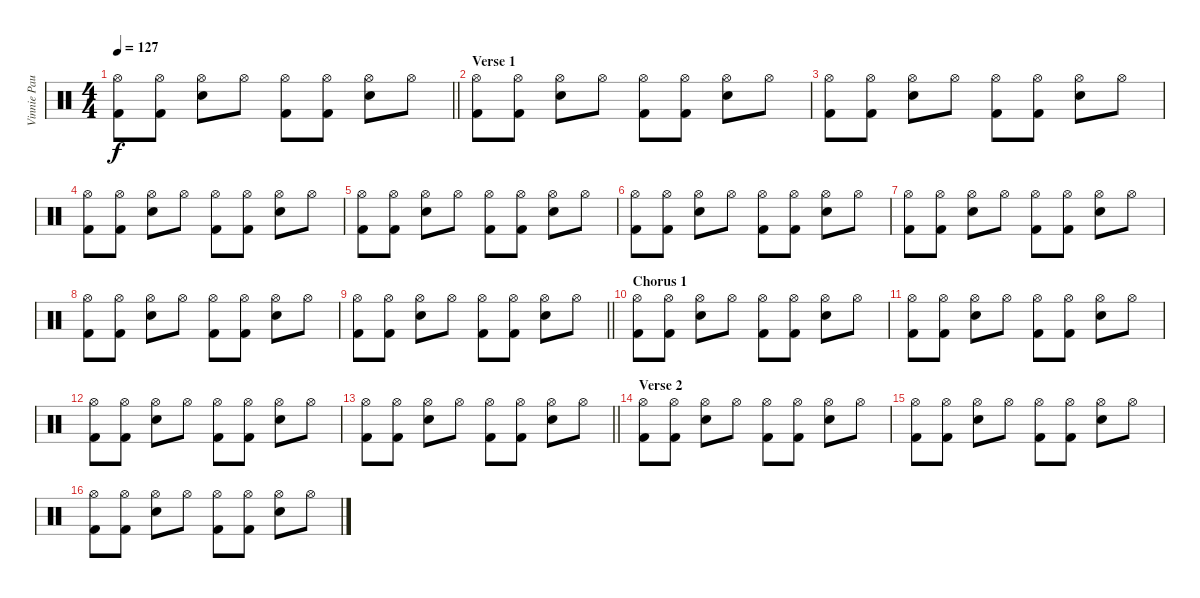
\track ("Vinnie Paul" "Vinnie Pau") {instrument percussion}
\staff {score}
\articulation defaults
\ts (4 4)
\tempo 127
\clef neutral
\barLineRight lightlight
\ks c
("Kick (hit) 2" "Hi-Hat (open)").8{dy f} ("Kick (hit) 2" "Hi-Hat (open)").8 ("Snare (hit) 2" "Hi-Hat (open)").8 "Hi-Hat (open)".8 ("Kick (hit) 2" "Hi-Hat (open)").8 ("Kick (hit) 2" "Hi-Hat (open)").8 ("Snare (hit) 2" "Hi-Hat (open)").8 "Hi-Hat (open)".8 |
\section ("" "Verse 1")
("Kick (hit) 2" "Hi-Hat (open)").8 ("Kick (hit) 2" "Hi-Hat (open)").8 ("Snare (hit) 2" "Hi-Hat (open)").8 "Hi-Hat (open)".8 ("Kick (hit) 2" "Hi-Hat (open)").8 ("Kick (hit) 2" "Hi-Hat (open)").8 ("Snare (hit) 2" "Hi-Hat (open)").8 "Hi-Hat (open)".8 |
("Kick (hit) 2" "Hi-Hat (open)").8 ("Kick (hit) 2" "Hi-Hat (open)").8 ("Snare (hit) 2" "Hi-Hat (open)").8 "Hi-Hat (open)".8 ("Kick (hit) 2" "Hi-Hat (open)").8 ("Kick (hit) 2" "Hi-Hat (open)").8 ("Snare (hit) 2" "Hi-Hat (open)").8 "Hi-Hat (open)".8 |
("Kick (hit) 2" "Hi-Hat (open)").8 ("Kick (hit) 2" "Hi-Hat (open)").8 ("Snare (hit) 2" "Hi-Hat (open)").8 "Hi-Hat (open)".8 ("Kick (hit) 2" "Hi-Hat (open)").8 ("Kick (hit) 2" "Hi-Hat (open)").8 ("Snare (hit) 2" "Hi-Hat (open)").8 "Hi-Hat (open)".8 |
("Kick (hit) 2" "Hi-Hat (open)").8 ("Kick (hit) 2" "Hi-Hat (open)").8 ("Snare (hit) 2" "Hi-Hat (open)").8 "Hi-Hat (open)".8 ("Kick (hit) 2" "Hi-Hat (open)").8 ("Kick (hit) 2" "Hi-Hat (open)").8 ("Snare (hit) 2" "Hi-Hat (open)").8 "Hi-Hat (open)".8 |
("Kick (hit) 2" "Hi-Hat (open)").8 ("Kick (hit) 2" "Hi-Hat (open)").8 ("Snare (hit) 2" "Hi-Hat (open)").8 "Hi-Hat (open)".8 ("Kick (hit) 2" "Hi-Hat (open)").8 ("Kick (hit) 2" "Hi-Hat (open)").8 ("Snare (hit) 2" "Hi-Hat (open)").8 "Hi-Hat (open)".8 |
("Kick (hit) 2" "Hi-Hat (open)").8 ("Kick (hit) 2" "Hi-Hat (open)").8 ("Snare (hit) 2" "Hi-Hat (open)").8 "Hi-Hat (open)".8 ("Kick (hit) 2" "Hi-Hat (open)").8 ("Kick (hit) 2" "Hi-Hat (open)").8 ("Snare (hit) 2" "Hi-Hat (open)").8 "Hi-Hat (open)".8 |
("Kick (hit) 2" "Hi-Hat (open)").8 ("Kick (hit) 2" "Hi-Hat (open)").8 ("Snare (hit) 2" "Hi-Hat (open)").8 "Hi-Hat (open)".8 ("Kick (hit) 2" "Hi-Hat (open)").8 ("Kick (hit) 2" "Hi-Hat (open)").8 ("Snare (hit) 2" "Hi-Hat (open)").8 "Hi-Hat (open)".8 |
\barLineRight lightlight
("Kick (hit) 2" "Hi-Hat (open)").8 ("Kick (hit) 2" "Hi-Hat (open)").8 ("Snare (hit) 2" "Hi-Hat (open)").8 "Hi-Hat (open)".8 ("Kick (hit) 2" "Hi-Hat (open)").8 ("Kick (hit) 2" "Hi-Hat (open)").8 ("Snare (hit) 2" "Hi-Hat (open)").8 "Hi-Hat (open)".8 |
\section ("" "Chorus 1")
("Kick (hit) 2" "Hi-Hat (open)").8 ("Kick (hit) 2" "Hi-Hat (open)").8 ("Snare (hit) 2" "Hi-Hat (open)").8 "Hi-Hat (open)".8 ("Kick (hit) 2" "Hi-Hat (open)").8 ("Kick (hit) 2" "Hi-Hat (open)").8 ("Snare (hit) 2" "Hi-Hat (open)").8 "Hi-Hat (open)".8 |
("Kick (hit) 2" "Hi-Hat (open)").8 ("Kick (hit) 2" "Hi-Hat (open)").8 ("Snare (hit) 2" "Hi-Hat (open)").8 "Hi-Hat (open)".8 ("Kick (hit) 2" "Hi-Hat (open)").8 ("Kick (hit) 2" "Hi-Hat (open)").8 ("Snare (hit) 2" "Hi-Hat (open)").8 "Hi-Hat (open)".8 |
("Kick (hit) 2" "Hi-Hat (open)").8 ("Kick (hit) 2" "Hi-Hat (open)").8 ("Snare (hit) 2" "Hi-Hat (open)").8 "Hi-Hat (open)".8 ("Kick (hit) 2" "Hi-Hat (open)").8 ("Kick (hit) 2" "Hi-Hat (open)").8 ("Snare (hit) 2" "Hi-Hat (open)").8 "Hi-Hat (open)".8 |
\barLineRight lightlight
("Kick (hit) 2" "Hi-Hat (open)").8 ("Kick (hit) 2" "Hi-Hat (open)").8 ("Snare (hit) 2" "Hi-Hat (open)").8 "Hi-Hat (open)".8 ("Kick (hit) 2" "Hi-Hat (open)").8 ("Kick (hit) 2" "Hi-Hat (open)").8 ("Snare (hit) 2" "Hi-Hat (open)").8 "Hi-Hat (open)".8 |
\section ("" "Verse 2")
("Kick (hit) 2" "Hi-Hat (open)").8 ("Kick (hit) 2" "Hi-Hat (open)").8 ("Snare (hit) 2" "Hi-Hat (open)").8 "Hi-Hat (open)".8 ("Kick (hit) 2" "Hi-Hat (open)").8 ("Kick (hit) 2" "Hi-Hat (open)").8 ("Snare (hit) 2" "Hi-Hat (open)").8 "Hi-Hat (open)".8 |
("Kick (hit) 2" "Hi-Hat (open)").8 ("Kick (hit) 2" "Hi-Hat (open)").8 ("Snare (hit) 2" "Hi-Hat (open)").8 "Hi-Hat (open)".8 ("Kick (hit) 2" "Hi-Hat (open)").8 ("Kick (hit) 2" "Hi-Hat (open)").8 ("Snare (hit) 2" "Hi-Hat (open)").8 "Hi-Hat (open)".8 |
("Kick (hit) 2" "Hi-Hat (open)").8 ("Kick (hit) 2" "Hi-Hat (open)").8 ("Snare (hit) 2" "Hi-Hat (open)").8 "Hi-Hat (open)".8 ("Kick (hit) 2" "Hi-Hat (open)").8 ("Kick (hit) 2" "Hi-Hat (open)").8 ("Snare (hit) 2" "Hi-Hat (open)").8 "Hi-Hat (open)".8
